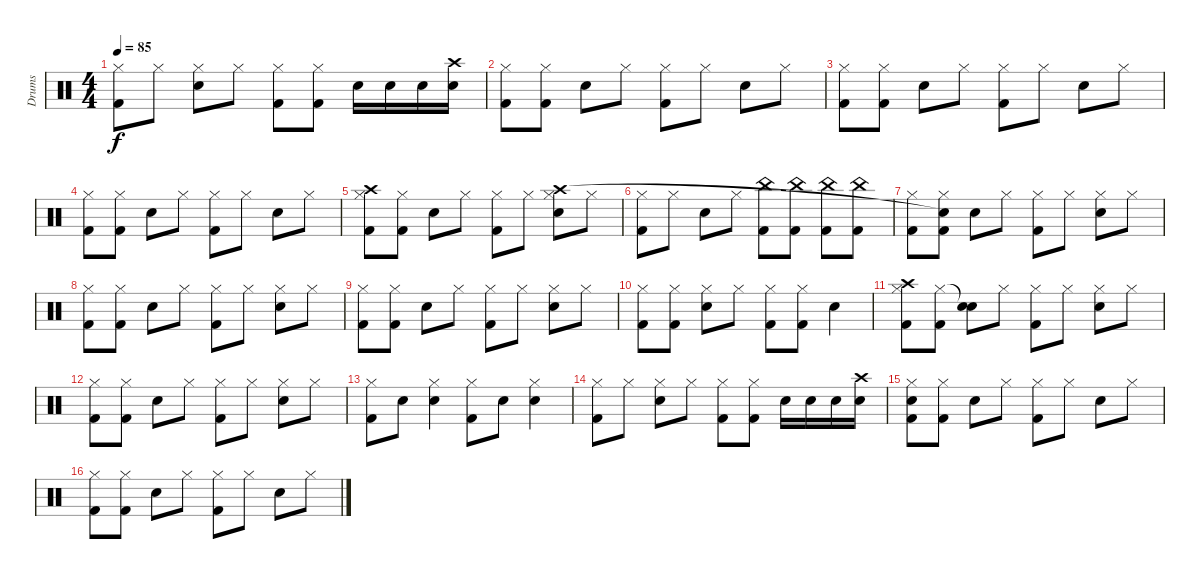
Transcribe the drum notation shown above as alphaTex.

\track ("Drums" "Drums") {instrument percussion}
\staff {score}
\articulation defaults
\ts (4 4)
\tempo 85
\clef neutral
\ks c
("Kick (hit) 2" "Hi-Hat (closed)").8{dy f} "Hi-Hat (closed)".8 ("Snare (hit) 2" "Hi-Hat (closed)").8 "Hi-Hat (closed)".8 ("Kick (hit) 2" "Hi-Hat (closed)").8 ("Kick (hit) 2" "Hi-Hat (closed)").8 "Snare (hit) 2".16 "Snare (hit) 2".16 "Snare (hit) 2".16 ("Snare (hit) 2" "Crash high (hit)").16 |
("Kick (hit) 2" "Hi-Hat (closed)").8 ("Kick (hit) 2" "Hi-Hat (closed)").8 "Snare (hit) 2".8 "Hi-Hat (closed)".8 ("Kick (hit) 2" "Hi-Hat (closed)").8 "Hi-Hat (closed)".8 "Snare (hit) 2".8 "Hi-Hat (closed)".8 |
("Kick (hit) 2" "Hi-Hat (closed)").8 ("Kick (hit) 2" "Hi-Hat (closed)").8 "Snare (hit) 2".8 "Hi-Hat (closed)".8 ("Kick (hit) 2" "Hi-Hat (closed)").8 "Hi-Hat (closed)".8 "Snare (hit) 2".8 "Hi-Hat (closed)".8 |
("Kick (hit) 2" "Hi-Hat (closed)").8 ("Kick (hit) 2" "Hi-Hat (closed)").8 "Snare (hit) 2".8 "Hi-Hat (closed)".8 ("Kick (hit) 2" "Hi-Hat (closed)").8 "Hi-Hat (closed)".8 "Snare (hit) 2".8 "Hi-Hat (closed)".8 |
("Kick (hit) 2" "Hi-Hat (closed)" "Crash high (hit)").8 ("Kick (hit) 2" "Hi-Hat (closed)").8 "Snare (hit) 2".8 "Hi-Hat (closed)".8 ("Kick (hit) 2" "Hi-Hat (closed)").8 "Hi-Hat (closed)".8 ("Snare (hit) 2" "Hi-Hat (closed)" "Crash high (hit)").8 "Hi-Hat (closed)".8 |
("Kick (hit) 2" "Hi-Hat (closed)").8 "Hi-Hat (closed)".8 "Snare (hit) 2".8 "Hi-Hat (closed)".8 ("Kick (hit) 2" "China (hit)").8 ("Kick (hit) 2" "China (hit)").8 ("Kick (hit) 2" "China (hit)").8 ("Kick (hit) 2" "China (hit)").8 |
("Kick (hit) 2" "Hi-Hat (closed)").8 ("Kick (hit) 2" "Hi-Hat (closed)" "Snare (hit)"{t}).8 "Snare (hit) 2".8 "Hi-Hat (closed)".8 ("Kick (hit) 2" "Hi-Hat (closed)").8 "Hi-Hat (closed)".8 ("Snare (hit) 2" "Hi-Hat (closed)").8 "Hi-Hat (closed)".8 |
("Kick (hit) 2" "Hi-Hat (closed)").8 ("Kick (hit) 2" "Hi-Hat (closed)").8 "Snare (hit) 2".8 "Hi-Hat (closed)".8 ("Kick (hit) 2" "Hi-Hat (closed)").8 "Hi-Hat (closed)".8 ("Snare (hit) 2" "Hi-Hat (closed)").8 "Hi-Hat (closed)".8 |
("Kick (hit) 2" "Hi-Hat (closed)").8 ("Kick (hit) 2" "Hi-Hat (closed)").8 "Snare (hit) 2".8 "Hi-Hat (closed)".8 ("Kick (hit) 2" "Hi-Hat (closed)").8 "Hi-Hat (closed)".8 ("Snare (hit) 2" "Hi-Hat (closed)").8 "Hi-Hat (closed)".8 |
("Kick (hit) 2" "Hi-Hat (closed)").8 ("Kick (hit) 2" "Hi-Hat (closed)").8 ("Snare (hit) 2" "Hi-Hat (closed)").8 "Hi-Hat (closed)".8 ("Kick (hit) 2" "Hi-Hat (closed)").8 ("Kick (hit) 2" "Hi-Hat (closed)").8 "Snare (hit) 2".4 |
("Kick (hit) 2" "Hi-Hat (closed)" "Crash high (hit)").8 ("Kick (hit) 2" "Hi-Hat (closed)").8 ("Snare (hit) 2" "Snare (hit)"{t}).8 "Hi-Hat (closed)".8 ("Kick (hit) 2" "Hi-Hat (closed)").8 "Hi-Hat (closed)".8 ("Snare (hit) 2" "Hi-Hat (closed)").8 "Hi-Hat (closed)".8 |
("Kick (hit) 2" "Hi-Hat (closed)").8 ("Kick (hit) 2" "Hi-Hat (closed)").8 "Snare (hit) 2".8 "Hi-Hat (closed)".8 ("Kick (hit) 2" "Hi-Hat (closed)").8 "Hi-Hat (closed)".8 ("Snare (hit) 2" "Hi-Hat (closed)").8 "Hi-Hat (closed)".8 |
("Kick (hit) 2" "Hi-Hat (closed)").8 "Snare (hit) 2".8 ("Snare (hit) 2" "Hi-Hat (closed)").4 ("Kick (hit) 2" "Hi-Hat (closed)").8 "Snare (hit) 2".8 ("Snare (hit) 2" "Hi-Hat (closed)").4 |
("Kick (hit) 2" "Hi-Hat (closed)").8 "Hi-Hat (closed)".8 ("Snare (hit) 2" "Hi-Hat (closed)").8 "Hi-Hat (closed)".8 ("Kick (hit) 2" "Hi-Hat (closed)").8 ("Kick (hit) 2" "Hi-Hat (closed)").8 "Snare (hit) 2".16 "Snare (hit) 2".16 "Snare (hit) 2".16 ("Snare (hit) 2" "Crash high (hit)").16 |
("Kick (hit) 2" "Hi-Hat (closed)" "Snare (hit)").8 ("Kick (hit) 2" "Hi-Hat (closed)").8 "Snare (hit) 2".8 "Hi-Hat (closed)".8 ("Kick (hit) 2" "Hi-Hat (closed)").8 "Hi-Hat (closed)".8 "Snare (hit) 2".8 "Hi-Hat (closed)".8 |
("Kick (hit) 2" "Hi-Hat (closed)").8 ("Kick (hit) 2" "Hi-Hat (closed)").8 "Snare (hit) 2".8 "Hi-Hat (closed)".8 ("Kick (hit) 2" "Hi-Hat (closed)").8 "Hi-Hat (closed)".8 "Snare (hit) 2".8 "Hi-Hat (closed)".8
